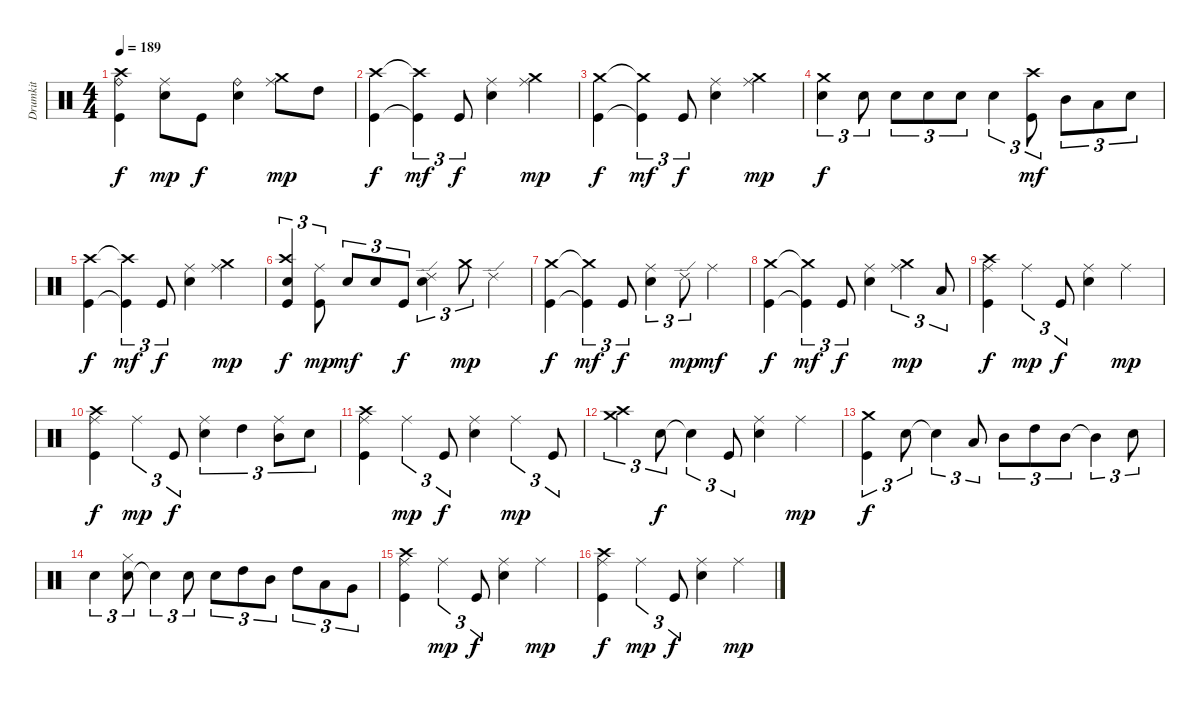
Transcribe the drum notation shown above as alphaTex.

\track ("Drumkit" "Drumkit") {instrument percussion}
\staff {score}
\articulation defaults
\ts (4 4)
\tempo 189
\clef neutral
\ks c
("Kick (hit)" "Crash high (hit)" "Ride (bell)").4{dy f} ("Snare (hit) 2" "Ride (middle)").8{dy mp} "Kick (hit)".8{dy f} ("Snare (hit) 2" "Ride (bell)").4 ("Crash medium (hit)" "Ride (middle)").8{dy mp} "High Tom (hit)".8 |
("Kick (hit)" "Crash high (hit)").4{dy f} ("Kick (hit)"{t} "Crash high (hit)"{t}).4{tu (3 2) dy mf} "Kick (hit)".8{tu (3 2) dy f} ("Snare (hit) 2" "Ride (middle)").4 ("Crash medium (hit)" "Ride (middle)").4{dy mp} |
("Kick (hit)" "Crash medium (hit)").4{dy f} ("Kick (hit)"{t} "Crash medium (hit)"{t}).4{tu (3 2) dy mf} "Kick (hit)".8{tu (3 2) dy f} ("Snare (hit) 2" "Ride (middle)").4 ("Crash medium (hit)" "Ride (middle)").4{dy mp} |
("Snare (hit) 2" "Crash medium (hit)").4{tu (3 2) dy f} "Snare (hit) 2".8{tu (3 2)} "Snare (hit) 2".8{tu (3 2)} "Snare (hit) 2".8{tu (3 2)} "Snare (hit) 2".8{tu (3 2)} "Snare (hit) 2".4{tu (3 2)} ("Kick (hit)" "Crash high (hit)").8{tu (3 2) dy mf} "Mid Tom (hit)".8{tu (3 2)} "Low Tom (hit)".8{tu (3 2)} "Snare (hit) 2".8{tu (3 2)} |
("Kick (hit)" "Crash high (hit)").4{dy f} ("Kick (hit)"{t} "Crash high (hit)"{t}).4{tu (3 2) dy mf} "Kick (hit)".8{tu (3 2) dy f} ("Snare (hit) 2" "Ride (middle)").4 ("Crash medium (hit)" "Ride (middle)").4{dy mp} |
("Kick (hit)" "Crash high (hit)" "Snare (hit) 2").4{tu (3 2) dy f} ("Ride (middle)" "Kick (hit)").8{tu (3 2) dy mp} "Snare (hit) 2".8{tu (3 2) dy mf} "Snare (hit) 2".8{tu (3 2)} "Kick (hit)".8{tu (3 2) dy f} ("Snare (hit) 2" "Ride (edge) 2").4{tu (3 2)} "Crash medium (hit)".8{tu (3 2) dy mp} "Ride (edge) 2".4 |
("Kick (hit)" "Crash medium (hit)").4{dy f} ("Kick (hit)"{t} "Crash medium (hit)"{t}).4{tu (3 2) dy mf} "Kick (hit)".8{tu (3 2) dy f} ("Snare (hit) 2" "Ride (middle)").4{tu (3 2)} "Ride (edge) 2".8{tu (3 2) dy mp} "Ride (middle)".4{dy mf} |
("Kick (hit)" "Crash medium (hit)").4{dy f} ("Kick (hit)"{t} "Crash medium (hit)"{t}).4{tu (3 2) dy mf} "Kick (hit)".8{tu (3 2) dy f} ("Snare (hit) 2" "Ride (middle)").4 ("Crash medium (hit)" "Ride (middle)").4{tu (3 2) dy mp} "Low Tom (hit)".8{tu (3 2)} |
("Kick (hit)" "Crash high (hit)" "Ride (middle)").4{dy f} "Ride (middle)".4{tu (3 2) dy mp} "Kick (hit)".8{tu (3 2) dy f} ("Snare (hit) 2" "Ride (middle)").4 "Ride (middle)".4{dy mp} |
("Kick (hit)" "Crash high (hit)" "Ride (middle)").4{dy f} "Ride (middle)".4{tu (3 2) dy mp} "Kick (hit)".8{tu (3 2) dy f} ("Snare (hit) 2" "Ride (middle)").4{tu (3 2)} "High Tom (hit)".4{tu (3 2)} ("Mid Tom (hit)" "Ride (middle)").8{tu (3 2)} "Snare (hit) 2".8{tu (3 2)} |
("Kick (hit)" "Crash high (hit)" "Ride (middle)").4 "Ride (middle)".4{tu (3 2) dy mp} "Kick (hit)".8{tu (3 2) dy f} ("Snare (hit) 2" "Ride (middle)").4 "Ride (middle)".4{tu (3 2) dy mp} "Kick (hit)".8{tu (3 2)} |
("Crash high (hit)" "Crash medium (hit)").4{tu (3 2)} "Snare (hit) 2".8{tu (3 2) dy f} "Snare (hit) 2"{t}.4{tu (3 2)} "Kick (hit)".8{tu (3 2)} ("Snare (hit) 2" "Ride (middle)").4 "Ride (middle)".4{dy mp} |
("Kick (hit)" "Crash medium (hit)").4{tu (3 2) dy f} "Snare (hit) 2".8{tu (3 2)} "Snare (hit) 2"{t}.4{tu (3 2)} "Low Tom (hit)".8{tu (3 2)} "Mid Tom (hit)".8{tu (3 2)} "High Tom (hit)".8{tu (3 2)} "Mid Tom (hit)".8{tu (3 2)} "Mid Tom (hit)"{t}.4{tu (3 2)} "Snare (hit) 2".8{tu (3 2)} |
"Snare (hit) 2".4{tu (3 2)} ("Snare (hit) 2" "Hi-Hat (closed)").8{tu (3 2)} "Snare (hit) 2"{t}.4{tu (3 2)} "Snare (hit) 2".8{tu (3 2)} "Snare (hit) 2".8{tu (3 2)} "High Tom (hit)".8{tu (3 2)} "Mid Tom (hit)".8{tu (3 2)} "High Tom (hit)".8{tu (3 2)} "Low Tom (hit)".8{tu (3 2)} "Very Low Tom (hit)".8{tu (3 2)} |
("Kick (hit)" "Crash high (hit)" "Ride (middle)").4 "Ride (middle)".4{tu (3 2) dy mp} "Kick (hit)".8{tu (3 2) dy f} ("Snare (hit) 2" "Ride (middle)").4 "Ride (middle)".4{dy mp} |
("Kick (hit)" "Crash high (hit)" "Ride (middle)").4{dy f} "Ride (middle)".4{tu (3 2) dy mp} "Kick (hit)".8{tu (3 2) dy f} ("Snare (hit) 2" "Ride (middle)").4 "Ride (middle)".4{dy mp}
